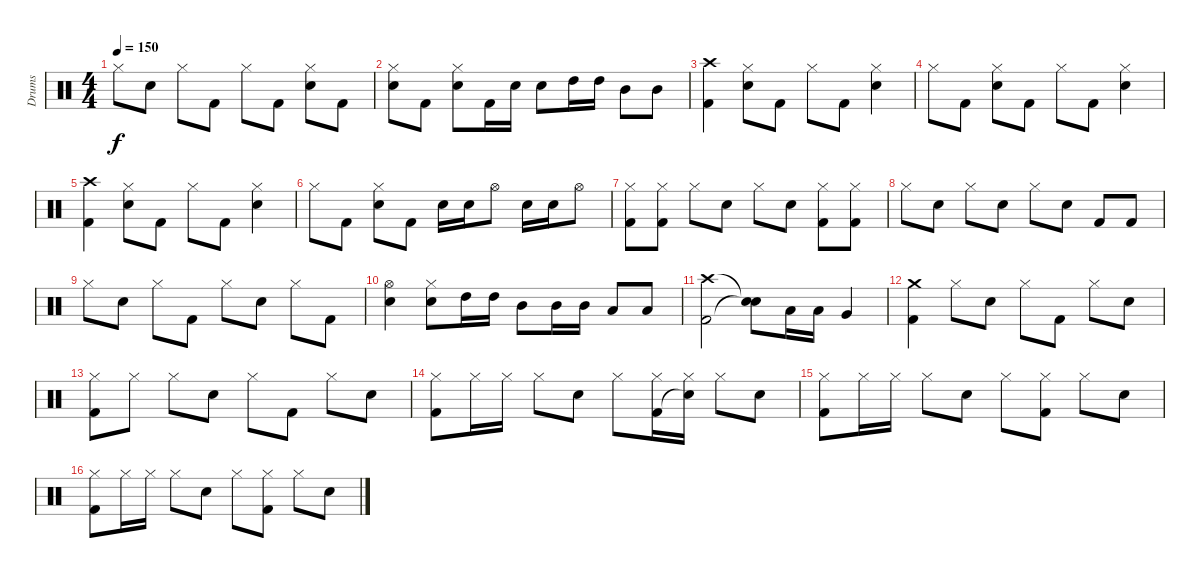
\track ("Drums" "Drums") {instrument percussion}
\staff {score}
\articulation defaults
\ts (4 4)
\tempo 150
\clef neutral
\ks c "Hi-Hat (closed)".8{dy f} "Electric Snare (hit)".8 "Hi-Hat (closed)".8 "Kick (hit) 2".8 "Hi-Hat (closed)".8 "Kick (hit) 2".8
("Hi-Hat (closed)" "Electric Snare (hit)").8 "Kick (hit) 2".8 |
("Hi-Hat (closed)" "Electric Snare (hit)").8 "Kick (hit) 2".8 ("Hi-Hat (closed)" "Electric Snare (hit)").8 "Kick (hit) 2".16 "Electric Snare (hit)".16 "Electric Snare (hit)".8 "High Tom (hit)".16 "High Tom (hit)".16 "Mid Tom (hit)".8 "Mid Tom (hit)".8 |
("Crash high (hit)" "Kick (hit) 2").4 ("Hi-Hat (closed)" "Electric Snare (hit)").8 "Kick (hit) 2".8 "Hi-Hat (closed)".8 "Kick (hit) 2".8 ("Hi-Hat (closed)" "Electric Snare (hit)").4 |
"Hi-Hat (closed)".8 "Kick (hit) 2".8 ("Hi-Hat (closed)" "Electric Snare (hit)").8 "Kick (hit) 2".8 "Hi-Hat (closed)".8 "Kick (hit) 2".8 ("Hi-Hat (closed)" "Electric Snare (hit)").4 |
("Crash high (hit)" "Kick (hit) 2").4 ("Hi-Hat (closed)" "Electric Snare (hit)").8 "Kick (hit) 2".8 "Hi-Hat (closed)".8 "Kick (hit) 2".8 ("Hi-Hat (closed)" "Electric Snare (hit)").4 |
"Hi-Hat (closed)".8 "Kick (hit) 2".8 ("Hi-Hat (closed)" "Electric Snare (hit)").8 "Kick (hit) 2".8 "Electric Snare (hit)".16 "Electric Snare (hit)".16 "Hi-Hat (open)".8 "Electric Snare (hit)".16 "Electric Snare (hit)".16 "Hi-Hat (open)".8 |
("Hi-Hat (closed)" "Kick (hit) 2").8 ("Hi-Hat (closed)" "Kick (hit) 2").8 "Hi-Hat (closed)".8 "Electric Snare (hit)".8 "Hi-Hat (closed)".8 "Electric Snare (hit)".8 ("Hi-Hat (closed)" "Kick (hit) 2").8 ("Hi-Hat (closed)" "Kick (hit) 2").8 |
"Hi-Hat (closed)".8 "Electric Snare (hit)".8 "Hi-Hat (closed)".8 "Electric Snare (hit)".8 "Hi-Hat (closed)".8 "Electric Snare (hit)".8 "Kick (hit) 2".8 "Kick (hit) 2".8 |
"Hi-Hat (closed)".8 "Electric Snare (hit)".8 "Hi-Hat (closed)".8 "Kick (hit) 2".8 "Hi-Hat (closed)".8 "Electric Snare (hit)".8 "Hi-Hat (closed)".8 "Kick (hit) 2".8 |
("Hi-Hat (open)" "Electric Snare (hit)").4 ("Electric Snare (hit)" "Hi-Hat (closed)").8 "High Tom (hit)".16 "High Tom (hit)".16 "Mid Tom (hit)".8 "Mid Tom (hit)".16 "Mid Tom (hit)".16 "Low Tom (hit)".8 "Low Tom (hit)".8 |
("Crash high (hit)" "Kick (hit) 2").2 ("Snare (hit)"{t} "Snare (hit)"{t}).8 "Low Tom (hit)".16 "Low Tom (hit)".16 "Very Low Tom (hit)".4 |
("Crash medium (hit)" "Kick (hit) 2").4 "Hi-Hat (closed)".8 "Electric Snare (hit)".8 "Hi-Hat (closed)".8 "Kick (hit) 2".8 "Hi-Hat (closed)".8 "Electric Snare (hit)".8 |
("Hi-Hat (closed)" "Kick (hit) 2").8 "Hi-Hat (closed)".8 "Hi-Hat (closed)".8 "Electric Snare (hit)".8 "Hi-Hat (closed)".8 "Kick (hit) 2".8 "Hi-Hat (closed)".8 "Electric Snare (hit)".8 |
("Hi-Hat (closed)" "Kick (hit) 2").8 "Hi-Hat (closed)".16 "Hi-Hat (closed)".16 "Hi-Hat (closed)".8 "Electric Snare (hit)".8 "Hi-Hat (closed)".8 ("Hi-Hat (closed)" "Kick (hit) 2").16 ("Hi-Hat (closed)" "Snare (hit)"{t}).16 "Hi-Hat (closed)".8 "Electric Snare (hit)".8 |
("Hi-Hat (closed)" "Kick (hit) 2").8 "Hi-Hat (closed)".16 "Hi-Hat (closed)".16 "Hi-Hat (closed)".8 "Electric Snare (hit)".8 "Hi-Hat (closed)".8 ("Hi-Hat (closed)" "Kick (hit) 2").8 "Hi-Hat (closed)".8 "Electric Snare (hit)".8 |
("Hi-Hat (closed)" "Kick (hit) 2").8 "Hi-Hat (closed)".16 "Hi-Hat (closed)".16 "Hi-Hat (closed)".8 "Electric Snare (hit)".8 "Hi-Hat (closed)".8 ("Hi-Hat (closed)" "Kick (hit) 2").8 "Hi-Hat (closed)".8 "Electric Snare (hit)".8
